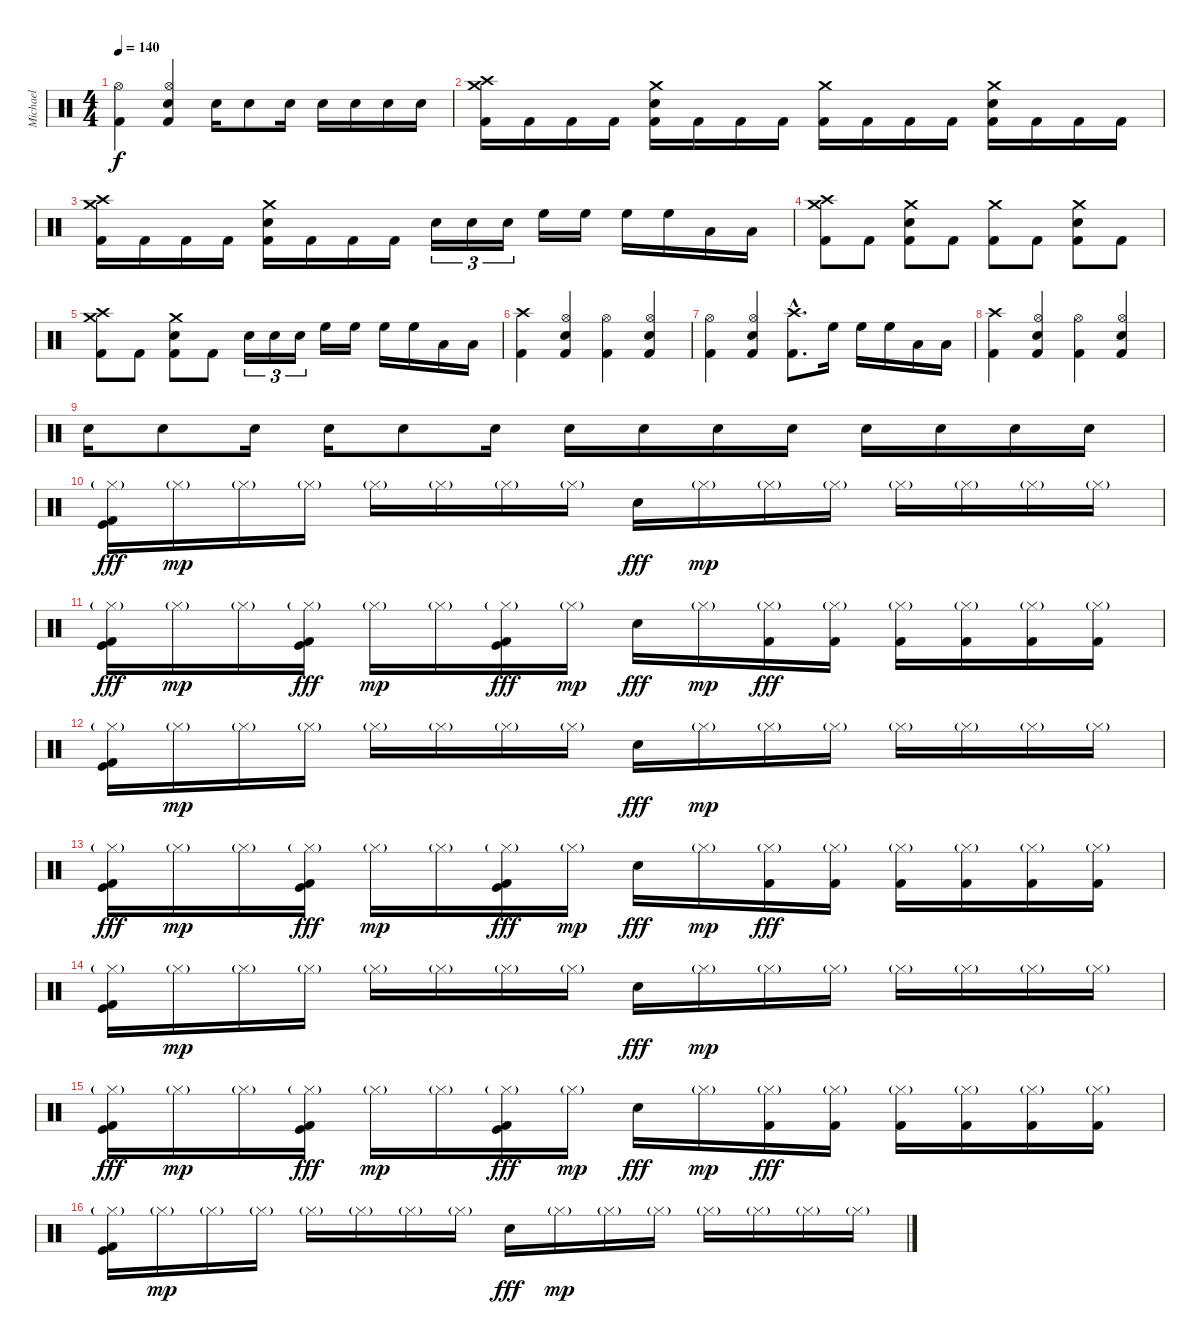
\track ("Michael" "Michael") {instrument percussion}
\staff {score}
\articulation defaults
\ts (4 4)
\tempo 140
\clef neutral
\ks c
("Kick (hit) 2" "Hi-Hat (open)").4{dy f} ("Kick (hit) 2" "Hi-Hat (open)" "Electric Snare (hit)").4 "Electric Snare (hit)".16 "Electric Snare (hit)".8 "Electric Snare (hit)".16 "Electric Snare (hit)".16 "Electric Snare (hit)".16 "Electric Snare (hit)".16 "Electric Snare (hit)".16 |
("Crash high (hit)" "Crash medium (hit)" "Kick (hit) 2").16 "Kick (hit) 2".16 "Kick (hit) 2".16 "Kick (hit) 2".16 ("Crash medium (hit)" "Electric Snare (hit)" "Kick (hit) 2").16 "Kick (hit) 2".16 "Kick (hit) 2".16 "Kick (hit) 2".16 ("Crash medium (hit)" "Kick (hit) 2").16 "Kick (hit) 2".16 "Kick (hit) 2".16 "Kick (hit) 2".16 ("Crash medium (hit)" "Electric Snare (hit)" "Kick (hit) 2").16 "Kick (hit) 2".16 "Kick (hit) 2".16 "Kick (hit) 2".16 |
("Crash high (hit)" "Crash medium (hit)" "Kick (hit) 2").16 "Kick (hit) 2".16 "Kick (hit) 2".16 "Kick (hit) 2".16 ("Crash medium (hit)" "Electric Snare (hit)" "Kick (hit) 2").16 "Kick (hit) 2".16 "Kick (hit) 2".16 "Kick (hit) 2".16 "Electric Snare (hit)".16{tu (3 2)} "Electric Snare (hit)".16{tu (3 2)} "Electric Snare (hit)".16{tu (3 2)} "High Floor Tom (hit)".16 "High Floor Tom (hit)".16 "High Floor Tom (hit)".16 "High Floor Tom (hit)".16 "Low Tom (hit)".16 "Low Tom (hit)".16 |
("Crash high (hit)" "Crash medium (hit)" "Kick (hit) 2").8 "Kick (hit) 2".8 ("Electric Snare (hit)" "Crash medium (hit)" "Kick (hit) 2").8 "Kick (hit) 2".8 ("Crash medium (hit)" "Kick (hit) 2").8 "Kick (hit) 2".8 ("Electric Snare (hit)" "Crash medium (hit)" "Kick (hit) 2").8 "Kick (hit) 2".8 |
("Crash high (hit)" "Crash medium (hit)" "Kick (hit) 2").8 "Kick (hit) 2".8 ("Electric Snare (hit)" "Crash medium (hit)" "Kick (hit) 2").8 "Kick (hit) 2".8 "Electric Snare (hit)".16{tu (3 2)} "Electric Snare (hit)".16{tu (3 2)} "Electric Snare (hit)".16{tu (3 2)} "High Floor Tom (hit)".16 "High Floor Tom (hit)".16 "High Floor Tom (hit)".16 "High Floor Tom (hit)".16 "Low Tom (hit)".16 "Low Tom (hit)".16 |
("Kick (hit) 2" "Crash high (hit)").4 ("Kick (hit) 2" "Hi-Hat (open)" "Electric Snare (hit)").4 ("Kick (hit) 2" "Hi-Hat (open)").4 ("Kick (hit) 2" "Hi-Hat (open)" "Electric Snare (hit)").4 |
("Kick (hit) 2" "Hi-Hat (open)").4 ("Kick (hit) 2" "Hi-Hat (open)" "Electric Snare (hit)").4 ("Crash high (hit)"{hac} "Kick (hit) 2"{hac}).8{d} "High Floor Tom (hit)".16 "High Floor Tom (hit)".16 "High Floor Tom (hit)".16 "Low Tom (hit)".16 "Low Tom (hit)".16 |
("Kick (hit) 2" "Crash high (hit)").4 ("Kick (hit) 2" "Hi-Hat (open)" "Electric Snare (hit)").4 ("Kick (hit) 2" "Hi-Hat (open)").4 ("Kick (hit) 2" "Hi-Hat (open)" "Electric Snare (hit)").4 |
"Electric Snare (hit)".16 "Electric Snare (hit)".8 "Electric Snare (hit)".16 "Electric Snare (hit)".16 "Electric Snare (hit)".8 "Electric Snare (hit)".16 "Electric Snare (hit)".16 "Electric Snare (hit)".16 "Electric Snare (hit)".16 "Electric Snare (hit)".16 "Electric Snare (hit)".16 "Electric Snare (hit)".16 "Electric Snare (hit)".16 "Electric Snare (hit)".16 |
("Hi-Hat (closed)"{g} "Kick (hit)" "Kick (hit) 2").16{dy fff} "Hi-Hat (closed)"{g}.16{dy mp} "Hi-Hat (closed)"{g}.16 "Hi-Hat (closed)"{g}.16 "Hi-Hat (closed)"{g}.16 "Hi-Hat (closed)"{g}.16 "Hi-Hat (closed)"{g}.16 "Hi-Hat (closed)"{g}.16 "Snare (hit) 2".16{dy fff} "Hi-Hat (closed)"{g}.16{dy mp} "Hi-Hat (closed)"{g}.16 "Hi-Hat (closed)"{g}.16 "Hi-Hat (closed)"{g}.16 "Hi-Hat (closed)"{g}.16 "Hi-Hat (closed)"{g}.16 "Hi-Hat (closed)"{g}.16 |
("Hi-Hat (closed)"{g} "Kick (hit)" "Kick (hit) 2").16{dy fff} "Hi-Hat (closed)"{g}.16{dy mp} "Hi-Hat (closed)"{g}.16 ("Hi-Hat (closed)"{g} "Kick (hit)" "Kick (hit) 2").16{dy fff} "Hi-Hat (closed)"{g}.16{dy mp} "Hi-Hat (closed)"{g}.16 ("Hi-Hat (closed)"{g} "Kick (hit)" "Kick (hit) 2").16{dy fff} "Hi-Hat (closed)"{g}.16{dy mp} "Snare (hit) 2".16{dy fff} "Hi-Hat (closed)"{g}.16{dy mp} ("Hi-Hat (closed)"{g} "Kick (hit) 2").16{dy fff} ("Hi-Hat (closed)"{g} "Kick (hit) 2").16 ("Hi-Hat (closed)"{g} "Kick (hit) 2").16 ("Hi-Hat (closed)"{g} "Kick (hit) 2").16 ("Hi-Hat (closed)"{g} "Kick (hit) 2").16 ("Hi-Hat (closed)"{g} "Kick (hit) 2").16 |
("Hi-Hat (closed)"{g} "Kick (hit)" "Kick (hit) 2").16 "Hi-Hat (closed)"{g}.16{dy mp} "Hi-Hat (closed)"{g}.16 "Hi-Hat (closed)"{g}.16 "Hi-Hat (closed)"{g}.16 "Hi-Hat (closed)"{g}.16 "Hi-Hat (closed)"{g}.16 "Hi-Hat (closed)"{g}.16 "Snare (hit) 2".16{dy fff} "Hi-Hat (closed)"{g}.16{dy mp} "Hi-Hat (closed)"{g}.16 "Hi-Hat (closed)"{g}.16 "Hi-Hat (closed)"{g}.16 "Hi-Hat (closed)"{g}.16 "Hi-Hat (closed)"{g}.16 "Hi-Hat (closed)"{g}.16 |
("Hi-Hat (closed)"{g} "Kick (hit)" "Kick (hit) 2").16{dy fff} "Hi-Hat (closed)"{g}.16{dy mp} "Hi-Hat (closed)"{g}.16 ("Hi-Hat (closed)"{g} "Kick (hit)" "Kick (hit) 2").16{dy fff} "Hi-Hat (closed)"{g}.16{dy mp} "Hi-Hat (closed)"{g}.16 ("Hi-Hat (closed)"{g} "Kick (hit)" "Kick (hit) 2").16{dy fff} "Hi-Hat (closed)"{g}.16{dy mp} "Snare (hit) 2".16{dy fff} "Hi-Hat (closed)"{g}.16{dy mp} ("Hi-Hat (closed)"{g} "Kick (hit) 2").16{dy fff} ("Hi-Hat (closed)"{g} "Kick (hit) 2").16 ("Hi-Hat (closed)"{g} "Kick (hit) 2").16 ("Hi-Hat (closed)"{g} "Kick (hit) 2").16 ("Hi-Hat (closed)"{g} "Kick (hit) 2").16 ("Hi-Hat (closed)"{g} "Kick (hit) 2").16 |
("Hi-Hat (closed)"{g} "Kick (hit)" "Kick (hit) 2").16 "Hi-Hat (closed)"{g}.16{dy mp} "Hi-Hat (closed)"{g}.16 "Hi-Hat (closed)"{g}.16 "Hi-Hat (closed)"{g}.16 "Hi-Hat (closed)"{g}.16 "Hi-Hat (closed)"{g}.16 "Hi-Hat (closed)"{g}.16 "Snare (hit) 2".16{dy fff} "Hi-Hat (closed)"{g}.16{dy mp} "Hi-Hat (closed)"{g}.16 "Hi-Hat (closed)"{g}.16 "Hi-Hat (closed)"{g}.16 "Hi-Hat (closed)"{g}.16 "Hi-Hat (closed)"{g}.16 "Hi-Hat (closed)"{g}.16 |
("Hi-Hat (closed)"{g} "Kick (hit)" "Kick (hit) 2").16{dy fff} "Hi-Hat (closed)"{g}.16{dy mp} "Hi-Hat (closed)"{g}.16 ("Hi-Hat (closed)"{g} "Kick (hit)" "Kick (hit) 2").16{dy fff} "Hi-Hat (closed)"{g}.16{dy mp} "Hi-Hat (closed)"{g}.16 ("Hi-Hat (closed)"{g} "Kick (hit)" "Kick (hit) 2").16{dy fff} "Hi-Hat (closed)"{g}.16{dy mp} "Snare (hit) 2".16{dy fff} "Hi-Hat (closed)"{g}.16{dy mp} ("Hi-Hat (closed)"{g} "Kick (hit) 2").16{dy fff} ("Hi-Hat (closed)"{g} "Kick (hit) 2").16 ("Hi-Hat (closed)"{g} "Kick (hit) 2").16 ("Hi-Hat (closed)"{g} "Kick (hit) 2").16 ("Hi-Hat (closed)"{g} "Kick (hit) 2").16 ("Hi-Hat (closed)"{g} "Kick (hit) 2").16 |
("Hi-Hat (closed)"{g} "Kick (hit)" "Kick (hit) 2").16 "Hi-Hat (closed)"{g}.16{dy mp} "Hi-Hat (closed)"{g}.16 "Hi-Hat (closed)"{g}.16 "Hi-Hat (closed)"{g}.16 "Hi-Hat (closed)"{g}.16 "Hi-Hat (closed)"{g}.16 "Hi-Hat (closed)"{g}.16 "Snare (hit) 2".16{dy fff} "Hi-Hat (closed)"{g}.16{dy mp} "Hi-Hat (closed)"{g}.16 "Hi-Hat (closed)"{g}.16 "Hi-Hat (closed)"{g}.16 "Hi-Hat (closed)"{g}.16 "Hi-Hat (closed)"{g}.16 "Hi-Hat (closed)"{g}.16
